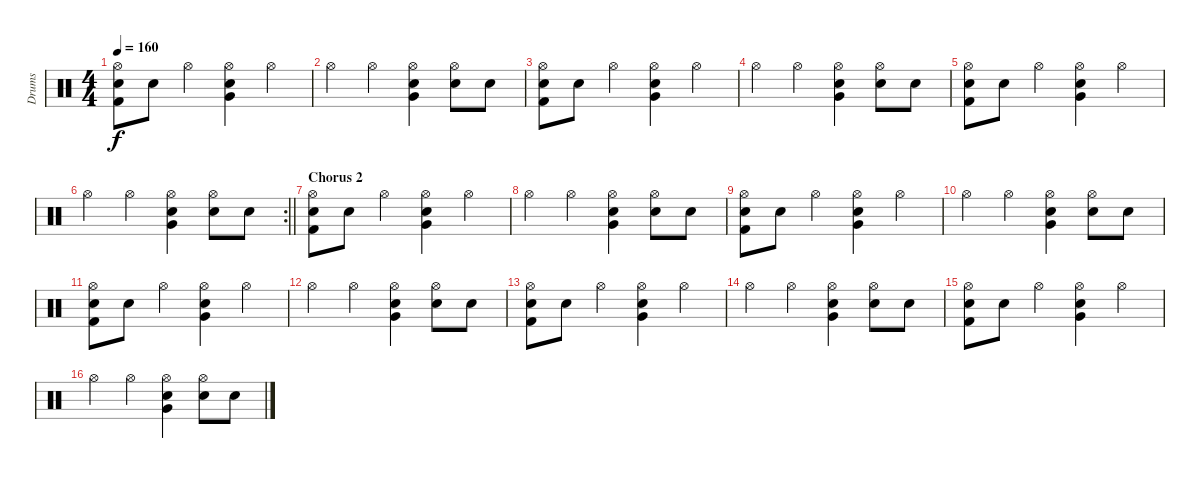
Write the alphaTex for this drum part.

\track ("Drums" "Drums") {instrument percussion}
\staff {score}
\articulation defaults
\ts (4 4)
\tempo 160
\clef neutral
\ks c
("Hi-Hat (open)" "Electric Snare (hit)" "Kick (hit) 2").8{dy f} "Electric Snare (hit)".8 "Hi-Hat (open)".4 ("Hi-Hat (open)" "Electric Snare (hit)" "Very Low Tom (hit)").4 "Hi-Hat (open)".4 |
"Hi-Hat (open)".4 "Hi-Hat (open)".4 ("Hi-Hat (open)" "Electric Snare (hit)" "Very Low Tom (hit)").4 ("Hi-Hat (open)" "Snare (hit) 2").8 "Electric Snare (hit)".8 |
("Hi-Hat (open)" "Electric Snare (hit)" "Kick (hit) 2").8 "Electric Snare (hit)".8 "Hi-Hat (open)".4 ("Hi-Hat (open)" "Electric Snare (hit)" "Very Low Tom (hit)").4 "Hi-Hat (open)".4 |
"Hi-Hat (open)".4 "Hi-Hat (open)".4 ("Hi-Hat (open)" "Electric Snare (hit)" "Very Low Tom (hit)").4 ("Hi-Hat (open)" "Snare (hit) 2").8 "Electric Snare (hit)".8 |
("Hi-Hat (open)" "Electric Snare (hit)" "Kick (hit) 2").8 "Electric Snare (hit)".8 "Hi-Hat (open)".4 ("Hi-Hat (open)" "Electric Snare (hit)" "Very Low Tom (hit)").4 "Hi-Hat (open)".4 |
\rc 2
\barLineRight lightlight "Hi-Hat (open)".4 "Hi-Hat (open)".4
("Hi-Hat (open)" "Electric Snare (hit)" "Very Low Tom (hit)").4 ("Hi-Hat (open)" "Snare (hit) 2").8 "Electric Snare (hit)".8 |
\section ("" "Chorus 2")
("Hi-Hat (open)" "Electric Snare (hit)" "Kick (hit) 2").8 "Electric Snare (hit)".8 "Hi-Hat (open)".4 ("Hi-Hat (open)" "Electric Snare (hit)" "Very Low Tom (hit)").4 "Hi-Hat (open)".4 |
"Hi-Hat (open)".4 "Hi-Hat (open)".4 ("Hi-Hat (open)" "Electric Snare (hit)" "Very Low Tom (hit)").4 ("Hi-Hat (open)" "Snare (hit) 2").8 "Electric Snare (hit)".8 |
("Hi-Hat (open)" "Electric Snare (hit)" "Kick (hit) 2").8 "Electric Snare (hit)".8 "Hi-Hat (open)".4 ("Hi-Hat (open)" "Electric Snare (hit)" "Very Low Tom (hit)").4 "Hi-Hat (open)".4 |
"Hi-Hat (open)".4 "Hi-Hat (open)".4 ("Hi-Hat (open)" "Electric Snare (hit)" "Very Low Tom (hit)").4 ("Hi-Hat (open)" "Snare (hit) 2").8 "Electric Snare (hit)".8 |
("Hi-Hat (open)" "Electric Snare (hit)" "Kick (hit) 2").8 "Electric Snare (hit)".8 "Hi-Hat (open)".4 ("Hi-Hat (open)" "Electric Snare (hit)" "Very Low Tom (hit)").4 "Hi-Hat (open)".4 |
"Hi-Hat (open)".4 "Hi-Hat (open)".4 ("Hi-Hat (open)" "Electric Snare (hit)" "Very Low Tom (hit)").4 ("Hi-Hat (open)" "Snare (hit) 2").8 "Electric Snare (hit)".8 |
("Hi-Hat (open)" "Electric Snare (hit)" "Kick (hit) 2").8 "Electric Snare (hit)".8 "Hi-Hat (open)".4 ("Hi-Hat (open)" "Electric Snare (hit)" "Very Low Tom (hit)").4 "Hi-Hat (open)".4 |
"Hi-Hat (open)".4 "Hi-Hat (open)".4 ("Hi-Hat (open)" "Electric Snare (hit)" "Very Low Tom (hit)").4 ("Hi-Hat (open)" "Snare (hit) 2").8 "Electric Snare (hit)".8 |
("Hi-Hat (open)" "Electric Snare (hit)" "Kick (hit) 2").8 "Electric Snare (hit)".8 "Hi-Hat (open)".4 ("Hi-Hat (open)" "Electric Snare (hit)" "Very Low Tom (hit)").4 "Hi-Hat (open)".4 |
"Hi-Hat (open)".4 "Hi-Hat (open)".4 ("Hi-Hat (open)" "Electric Snare (hit)" "Very Low Tom (hit)").4 ("Hi-Hat (open)" "Snare (hit) 2").8 "Electric Snare (hit)".8
